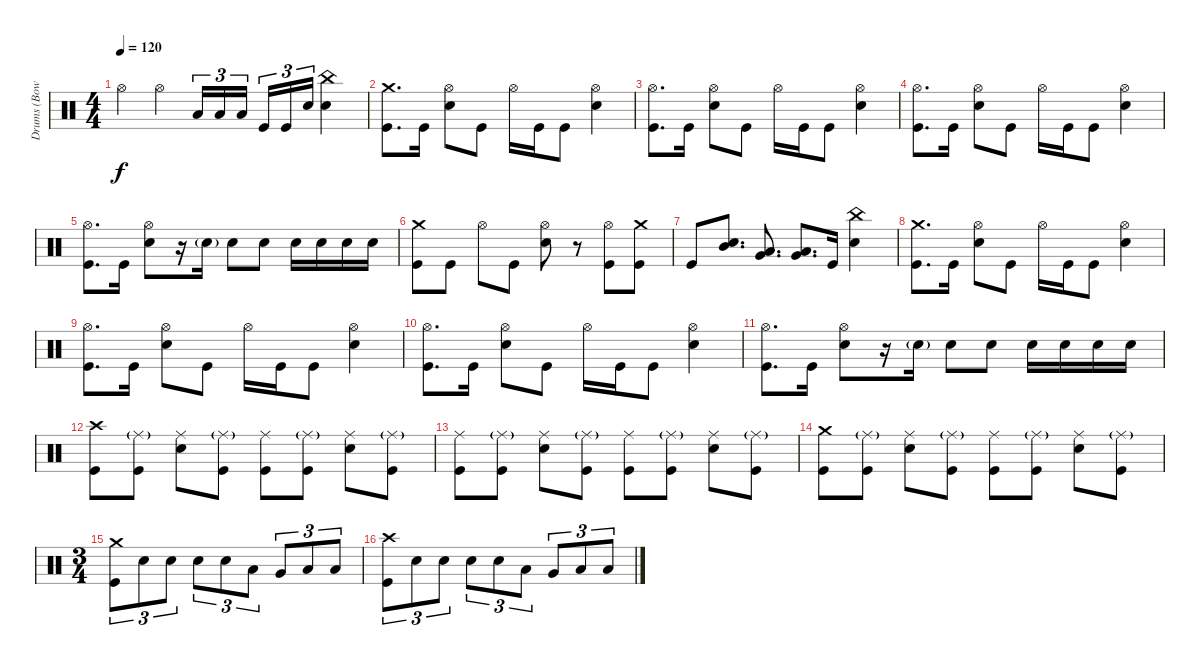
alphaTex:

\track ("Drums (Bowders)" "Drums (Bow") {instrument percussion}
\staff {score}
\articulation defaults
\ts (4 4)
\tempo 120
\clef neutral
\ks c "Hi-Hat (open)".4{dy f} "Hi-Hat (open)".4 "Low Floor Tom (hit)".16{tu (3 2)} "Low Floor Tom (hit)".16{tu (3 2)} "Low Floor Tom (hit)".16{tu (3 2)} "Kick (hit)".16{tu (3 2)} "Kick (hit)".16{tu (3 2)} "Snare (hit) 2".16{tu (3 2)}
("Snare (hit) 2" "China (hit)").4 |
("Kick (hit)" "Crash medium (hit)").8{d} "Kick (hit)".16 ("Snare (hit) 2" "Hi-Hat (open)").8 "Kick (hit)".8 "Hi-Hat (open)".16 "Kick (hit)".16 "Kick (hit)".8 ("Snare (hit) 2" "Hi-Hat (open)").4 |
("Kick (hit)" "Hi-Hat (open)").8{d} "Kick (hit)".16 ("Snare (hit) 2" "Hi-Hat (open)").8 "Kick (hit)".8 "Hi-Hat (open)".16 "Kick (hit)".16 "Kick (hit)".8 ("Snare (hit) 2" "Hi-Hat (open)").4 |
("Kick (hit)" "Hi-Hat (open)").8{d} "Kick (hit)".16 ("Snare (hit) 2" "Hi-Hat (open)").8 "Kick (hit)".8 "Hi-Hat (open)".16 "Kick (hit)".16 "Kick (hit)".8 ("Snare (hit) 2" "Hi-Hat (open)").4 |
("Kick (hit)" "Hi-Hat (open)").8{d} "Kick (hit)".16 ("Snare (hit) 2" "Hi-Hat (open)").8 r.16 "Snare (hit) 2"{g}.16 "Snare (hit) 2".8 "Snare (hit) 2".8 "Snare (hit) 2".16 "Snare (hit) 2".16 "Snare (hit) 2".16 "Snare (hit) 2".16 |
("Kick (hit)" "Crash medium (hit)").8 "Kick (hit)".8 "Hi-Hat (open)".8 "Kick (hit)".8 ("Snare (hit) 2" "Hi-Hat (open)").8 r.8 ("Kick (hit)" "Hi-Hat (open)").8 ("Kick (hit)" "Crash medium (hit)").8 |
"Kick (hit)".8 ("Snare (hit) 2" "Mid Tom (hit)").8{d} ("Low Tom (hit)" "Very Low Tom (hit)").8{d} ("Low Floor Tom (hit)" "Very Low Tom (hit)").8{d} "Kick (hit)".16 ("Snare (hit) 2" "China (hit)").4 |
("Kick (hit)" "Crash medium (hit)").8{d} "Kick (hit)".16 ("Snare (hit) 2" "Hi-Hat (open)").8 "Kick (hit)".8 "Hi-Hat (open)".16 "Kick (hit)".16 "Kick (hit)".8 ("Snare (hit) 2" "Hi-Hat (open)").4 |
("Kick (hit)" "Hi-Hat (open)").8{d} "Kick (hit)".16 ("Snare (hit) 2" "Hi-Hat (open)").8 "Kick (hit)".8 "Hi-Hat (open)".16 "Kick (hit)".16 "Kick (hit)".8 ("Snare (hit) 2" "Hi-Hat (open)").4 |
("Kick (hit)" "Hi-Hat (open)").8{d} "Kick (hit)".16 ("Snare (hit) 2" "Hi-Hat (open)").8 "Kick (hit)".8 "Hi-Hat (open)".16 "Kick (hit)".16 "Kick (hit)".8 ("Snare (hit) 2" "Hi-Hat (open)").4 |
("Kick (hit)" "Hi-Hat (open)").8{d} "Kick (hit)".16 ("Snare (hit) 2" "Hi-Hat (open)").8 r.16 "Snare (hit) 2"{g}.16 "Snare (hit) 2".8 "Snare (hit) 2".8 "Snare (hit) 2".16 "Snare (hit) 2".16 "Snare (hit) 2".16 "Snare (hit) 2".16 |
("Kick (hit)" "Crash high (hit)").8 ("Kick (hit)" "Ride (middle)"{g}).8 ("Snare (hit) 2" "Ride (middle)").8 ("Kick (hit)" "Ride (middle)"{g}).8 ("Kick (hit)" "Ride (middle)").8 ("Kick (hit)" "Ride (middle)"{g}).8 ("Snare (hit) 2" "Ride (middle)").8 ("Kick (hit)" "Ride (middle)"{g}).8 |
("Kick (hit)" "Ride (middle)").8 ("Kick (hit)" "Ride (middle)"{g}).8 ("Snare (hit) 2" "Ride (middle)").8 ("Kick (hit)" "Ride (middle)"{g}).8 ("Kick (hit)" "Ride (middle)").8 ("Kick (hit)" "Ride (middle)"{g}).8 ("Snare (hit) 2" "Ride (middle)").8 ("Kick (hit)" "Ride (middle)"{g}).8 |
("Kick (hit)" "Crash medium (hit)").8 ("Kick (hit)" "Ride (middle)"{g}).8 ("Snare (hit) 2" "Ride (middle)").8 ("Kick (hit)" "Ride (middle)"{g}).8 ("Kick (hit)" "Ride (middle)").8 ("Kick (hit)" "Ride (middle)"{g}).8 ("Snare (hit) 2" "Ride (middle)").8 ("Kick (hit)" "Ride (middle)"{g}).8 |
\ts (3 4)
("Kick (hit)" "Crash medium (hit)").8{tu (3 2)} "Snare (hit) 2".8{tu (3 2)} "Snare (hit) 2".8{tu (3 2)} "Snare (hit) 2".8{tu (3 2)} "Snare (hit) 2".8{tu (3 2)} "Low Tom (hit)".8{tu (3 2)} "Very Low Tom (hit)".8{tu (3 2)} "Low Floor Tom (hit)".8{tu (3 2)} "Low Floor Tom (hit)".8{tu (3 2)} |
("Kick (hit)" "Crash high (hit)").8{tu (3 2)} "Snare (hit) 2".8{tu (3 2)} "Snare (hit) 2".8{tu (3 2)} "Snare (hit) 2".8{tu (3 2)} "Snare (hit) 2".8{tu (3 2)} "Low Tom (hit)".8{tu (3 2)} "Very Low Tom (hit)".8{tu (3 2)} "Low Floor Tom (hit)".8{tu (3 2)} "Low Floor Tom (hit)".8{tu (3 2)}
